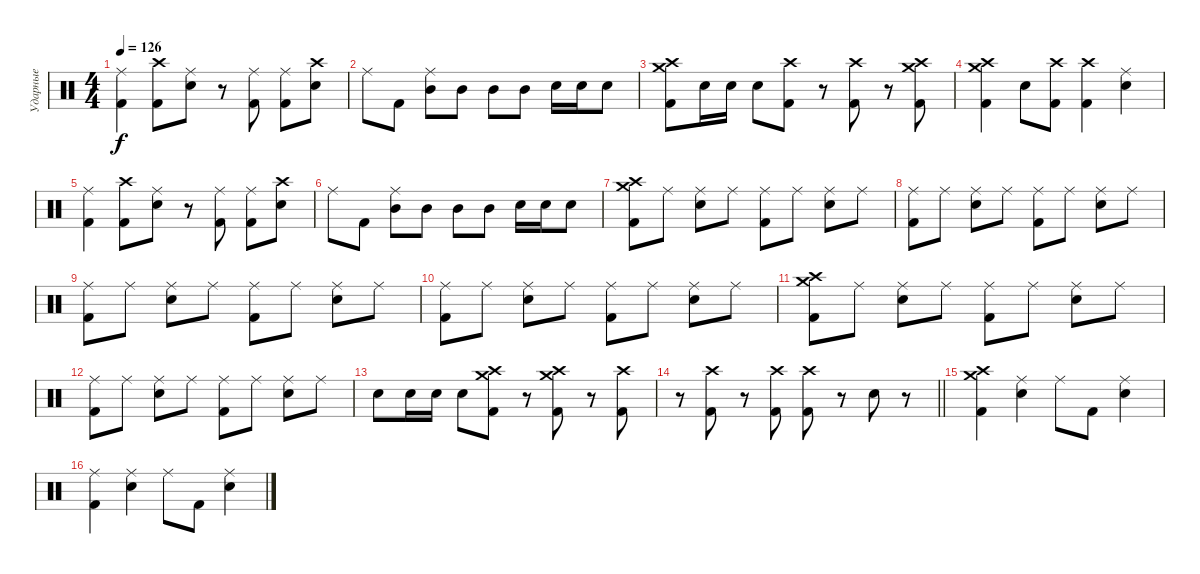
\track ("Ударные" "Ударные") {instrument percussion}
\staff {score}
\articulation defaults
\ts (4 4)
\tempo 126
\clef neutral
\ks c
("Kick (hit) 2" "Ride (middle)").4{dy f} ("Kick (hit) 2" "Crash high (hit)").8 ("Snare (hit) 2" "Ride (middle)").8 r.8 ("Kick (hit) 2" "Ride (middle)").8 ("Kick (hit) 2" "Ride (middle)").8 ("Snare (hit) 2" "Crash high (hit)").8 |
"Ride (middle)".8 "Kick (hit) 2".8 ("Mid Tom (hit)" "Ride (middle)").8 "Mid Tom (hit)".8 "Mid Tom (hit)".8 "Mid Tom (hit)".8 "Electric Snare (hit)".16 "Electric Snare (hit)".16 "Electric Snare (hit)".8 |
("Kick (hit) 2" "Crash high (hit)" "Crash medium (hit)").8 "Snare (hit) 2".16 "Electric Snare (hit)".16 "Snare (hit) 2".8 ("Kick (hit) 2" "Crash high (hit)").8 r.8 ("Kick (hit) 2" "Crash high (hit)").8 r.8 ("Kick (hit) 2" "Crash medium (hit)" "Crash high (hit)").8 |
("Kick (hit) 2" "Crash high (hit)" "Crash medium (hit)").4 "Snare (hit) 2".8 ("Kick (hit) 2" "Crash high (hit)").8 ("Kick (hit) 2" "Crash high (hit)").4 ("Snare (hit) 2" "Ride (middle)").4 |
("Kick (hit) 2" "Ride (middle)").4 ("Kick (hit) 2" "Crash high (hit)").8 ("Snare (hit) 2" "Ride (middle)").8 r.8 ("Kick (hit) 2" "Ride (middle)").8 ("Kick (hit) 2" "Ride (middle)").8 ("Snare (hit) 2" "Crash high (hit)").8 |
"Ride (middle)".8 "Kick (hit) 2".8 ("Mid Tom (hit)" "Ride (middle)").8 "Mid Tom (hit)".8 "Mid Tom (hit)".8 "Mid Tom (hit)".8 "Electric Snare (hit)".16 "Electric Snare (hit)".16 "Electric Snare (hit)".8 |
("Kick (hit) 2" "Crash medium (hit)" "Crash high (hit)").8 "Ride (middle)".8 ("Snare (hit) 2" "Ride (middle)").8 "Ride (middle)".8 ("Kick (hit) 2" "Ride (middle)").8 "Ride (middle)".8 ("Snare (hit) 2" "Ride (middle)").8 "Ride (middle)".8 |
("Kick (hit) 2" "Ride (middle)").8 "Ride (middle)".8 ("Snare (hit) 2" "Ride (middle)").8 "Ride (middle)".8 ("Kick (hit) 2" "Ride (middle)").8 "Ride (middle)".8 ("Snare (hit) 2" "Ride (middle)").8 "Ride (middle)".8 |
("Kick (hit) 2" "Ride (middle)").8 "Ride (middle)".8 ("Snare (hit) 2" "Ride (middle)").8 "Ride (middle)".8 ("Kick (hit) 2" "Ride (middle)").8 "Ride (middle)".8 ("Snare (hit) 2" "Ride (middle)").8 "Ride (middle)".8 |
("Kick (hit) 2" "Ride (middle)").8 "Ride (middle)".8 ("Snare (hit) 2" "Ride (middle)").8 "Ride (middle)".8 ("Kick (hit) 2" "Ride (middle)").8 "Ride (middle)".8 ("Snare (hit) 2" "Ride (middle)").8 "Ride (middle)".8 |
("Kick (hit) 2" "Crash medium (hit)" "Crash high (hit)").8 "Ride (middle)".8 ("Snare (hit) 2" "Ride (middle)").8 "Ride (middle)".8 ("Kick (hit) 2" "Ride (middle)").8 "Ride (middle)".8 ("Snare (hit) 2" "Ride (middle)").8 "Ride (middle)".8 |
("Kick (hit) 2" "Ride (middle)").8 "Ride (middle)".8 ("Snare (hit) 2" "Ride (middle)").8 "Ride (middle)".8 ("Kick (hit) 2" "Ride (middle)").8 "Ride (middle)".8 ("Snare (hit) 2" "Ride (middle)").8 "Ride (middle)".8 |
"Snare (hit) 2".8 "Snare (hit) 2".16 "Snare (hit) 2".16 "Snare (hit) 2".8 ("Kick (hit) 2" "Crash medium (hit)" "Crash high (hit)").8 r.8 ("Kick (hit) 2" "Crash high (hit)" "Crash medium (hit)").8 r.8 ("Kick (hit) 2" "Crash high (hit)").8 |
\barLineRight lightlight
r.8 ("Kick (hit) 2" "Crash high (hit)").8 r.8 ("Kick (hit) 2" "Crash high (hit)").8 ("Kick (hit) 2" "Crash high (hit)").8 r.8 "Snare (hit) 2".8 r.8 |
("Kick (hit) 2" "Crash high (hit)" "Crash medium (hit)").4 ("Snare (hit) 2" "Ride (middle)").4 "Ride (middle)".8 "Kick (hit) 2".8 ("Snare (hit) 2" "Ride (middle)").4 |
("Kick (hit) 2" "Ride (middle)").4 ("Snare (hit) 2" "Ride (middle)").4 "Ride (middle)".8 "Kick (hit) 2".8 ("Snare (hit) 2" "Ride (middle)").4
